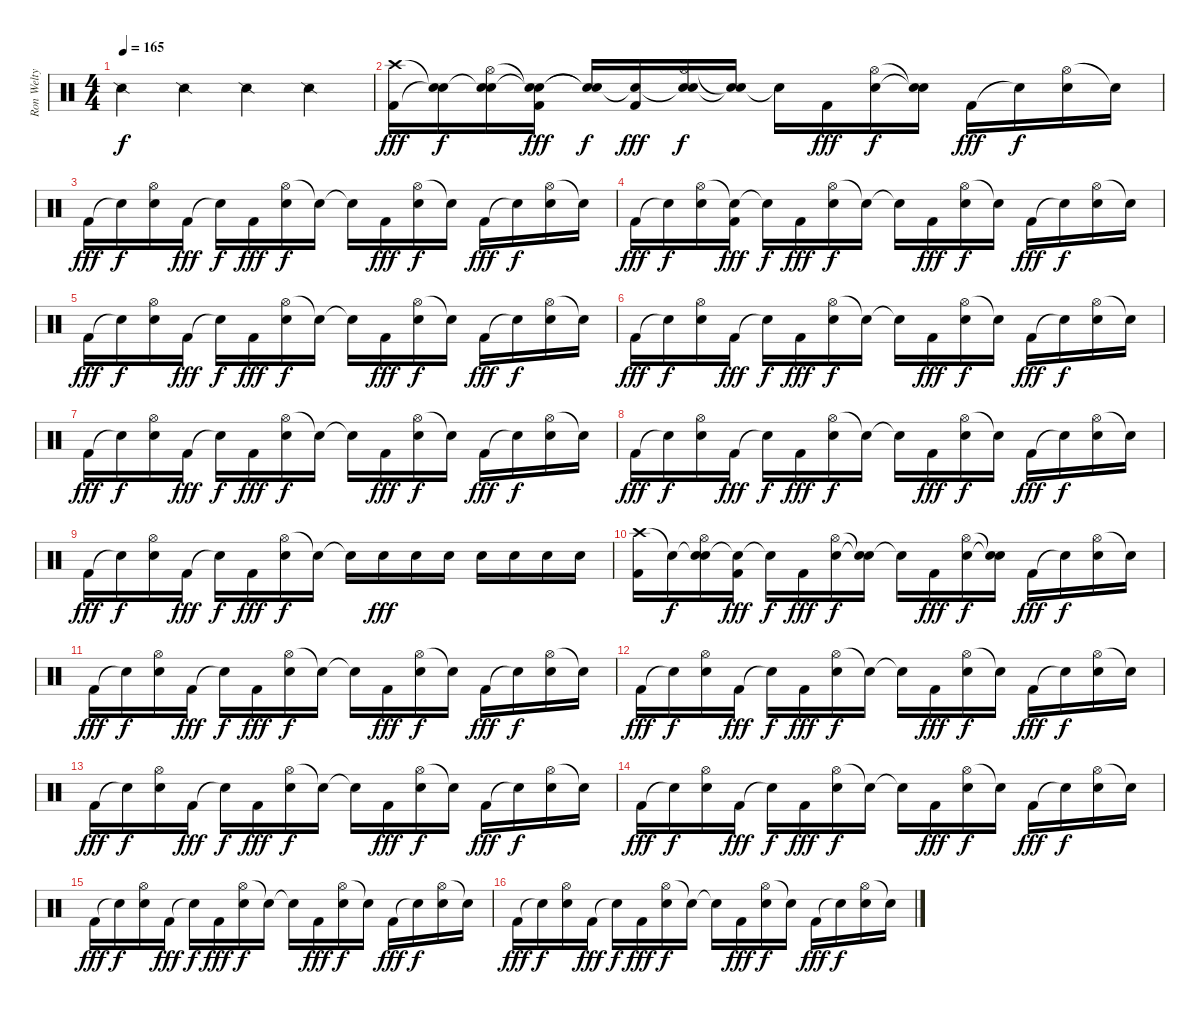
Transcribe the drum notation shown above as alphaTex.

\track ("Ron Welty" "Ron Welty") {instrument percussion}
\staff {score}
\articulation defaults
\ts (4 4)
\tempo 165
\clef neutral
\ks c "Snare (side stick) 2".4{dy f} "Snare (side stick) 2".4 "Snare (side stick) 2".4 "Snare (side stick) 2".4
|
("Crash high (hit)" "Kick (hit) 2").16{dy fff} ("Snare (hit)"{t} "Snare (hit)"{t}).16{dy f} ("Snare (hit)"{t} "Hi-Hat (open)" "Electric Snare (hit)").16 ("Snare (hit)"{t} "Snare (hit)"{t} "Kick (hit) 2").16{dy fff} ("Snare (hit)"{t} "Snare (hit)"{t}).16{dy f} ("Snare (hit)"{t} "Kick (hit) 2").16{dy fff} ("Snare (hit)"{t} "Hi-Hat (open)" "Electric Snare (hit)").16{dy f} ("Snare (hit)"{t} "Snare (hit)"{t}).16 "Snare (hit)"{t}.16 "Kick (hit) 2".16{dy fff} ("Hi-Hat (open)" "Electric Snare (hit)").16{dy f} ("Snare (hit)"{t} "Snare (hit)"{t}).16 "Kick (hit) 2".16{dy fff} "Snare (hit)"{t}.16{dy f} ("Hi-Hat (open)" "Electric Snare (hit)").16 "Snare (hit)"{t}.16 |
"Kick (hit) 2".16{dy fff} "Snare (hit)"{t}.16{dy f} ("Hi-Hat (open)" "Electric Snare (hit)").16 "Kick (hit) 2".16{dy fff} "Snare (hit)"{t}.16{dy f} "Kick (hit) 2".16{dy fff} ("Hi-Hat (open)" "Electric Snare (hit)").16{dy f} "Snare (hit)"{t}.16 "Snare (hit)"{t}.16 "Kick (hit) 2".16{dy fff} ("Hi-Hat (open)" "Electric Snare (hit)").16{dy f} "Snare (hit)"{t}.16 "Kick (hit) 2".16{dy fff} "Snare (hit)"{t}.16{dy f} ("Hi-Hat (open)" "Electric Snare (hit)").16 "Snare (hit)"{t}.16 |
"Kick (hit) 2".16{dy fff} "Snare (hit)"{t}.16{dy f} ("Hi-Hat (open)" "Electric Snare (hit)").16 ("Snare (hit)"{t} "Kick (hit) 2").16{dy fff} "Snare (hit)"{t}.16{dy f} "Kick (hit) 2".16{dy fff} ("Hi-Hat (open)" "Electric Snare (hit)").16{dy f} "Snare (hit)"{t}.16 "Snare (hit)"{t}.16 "Kick (hit) 2".16{dy fff} ("Hi-Hat (open)" "Electric Snare (hit)").16{dy f} "Snare (hit)"{t}.16 "Kick (hit) 2".16{dy fff} "Snare (hit)"{t}.16{dy f} ("Hi-Hat (open)" "Electric Snare (hit)").16 "Snare (hit)"{t}.16 |
"Kick (hit) 2".16{dy fff} "Snare (hit)"{t}.16{dy f} ("Hi-Hat (open)" "Electric Snare (hit)").16 "Kick (hit) 2".16{dy fff} "Snare (hit)"{t}.16{dy f} "Kick (hit) 2".16{dy fff} ("Hi-Hat (open)" "Electric Snare (hit)").16{dy f} "Snare (hit)"{t}.16 "Snare (hit)"{t}.16 "Kick (hit) 2".16{dy fff} ("Hi-Hat (open)" "Electric Snare (hit)").16{dy f} "Snare (hit)"{t}.16 "Kick (hit) 2".16{dy fff} "Snare (hit)"{t}.16{dy f} ("Hi-Hat (open)" "Electric Snare (hit)").16 "Snare (hit)"{t}.16 |
"Kick (hit) 2".16{dy fff} "Snare (hit)"{t}.16{dy f} ("Hi-Hat (open)" "Electric Snare (hit)").16 "Kick (hit) 2".16{dy fff} "Snare (hit)"{t}.16{dy f} "Kick (hit) 2".16{dy fff} ("Hi-Hat (open)" "Electric Snare (hit)").16{dy f} "Snare (hit)"{t}.16 "Snare (hit)"{t}.16 "Kick (hit) 2".16{dy fff} ("Hi-Hat (open)" "Electric Snare (hit)").16{dy f} "Snare (hit)"{t}.16 "Kick (hit) 2".16{dy fff} "Snare (hit)"{t}.16{dy f} ("Hi-Hat (open)" "Electric Snare (hit)").16 "Snare (hit)"{t}.16 |
"Kick (hit) 2".16{dy fff} "Snare (hit)"{t}.16{dy f} ("Hi-Hat (open)" "Electric Snare (hit)").16 "Kick (hit) 2".16{dy fff} "Snare (hit)"{t}.16{dy f} "Kick (hit) 2".16{dy fff} ("Hi-Hat (open)" "Electric Snare (hit)").16{dy f} "Snare (hit)"{t}.16 "Snare (hit)"{t}.16 "Kick (hit) 2".16{dy fff} ("Hi-Hat (open)" "Electric Snare (hit)").16{dy f} "Snare (hit)"{t}.16 "Kick (hit) 2".16{dy fff} "Snare (hit)"{t}.16{dy f} ("Hi-Hat (open)" "Electric Snare (hit)").16 "Snare (hit)"{t}.16 |
"Kick (hit) 2".16{dy fff} "Snare (hit)"{t}.16{dy f} ("Hi-Hat (open)" "Electric Snare (hit)").16 "Kick (hit) 2".16{dy fff} "Snare (hit)"{t}.16{dy f} "Kick (hit) 2".16{dy fff} ("Hi-Hat (open)" "Electric Snare (hit)").16{dy f} "Snare (hit)"{t}.16 "Snare (hit)"{t}.16 "Kick (hit) 2".16{dy fff} ("Hi-Hat (open)" "Electric Snare (hit)").16{dy f} "Snare (hit)"{t}.16 "Kick (hit) 2".16{dy fff} "Snare (hit)"{t}.16{dy f} ("Hi-Hat (open)" "Electric Snare (hit)").16 "Snare (hit)"{t}.16 |
"Kick (hit) 2".16{dy fff} "Snare (hit)"{t}.16{dy f} ("Hi-Hat (open)" "Electric Snare (hit)").16 "Kick (hit) 2".16{dy fff} "Snare (hit)"{t}.16{dy f} "Kick (hit) 2".16{dy fff} ("Hi-Hat (open)" "Electric Snare (hit)").16{dy f} "Snare (hit)"{t}.16 "Snare (hit)"{t}.16 "Snare (hit) 2".16{dy fff} "Snare (hit) 2".16 "Snare (hit) 2".16 "Electric Snare (hit)".16 "Electric Snare (hit)".16 "Snare (hit) 2".16 "Snare (hit) 2".16 |
("Crash high (hit)" "Kick (hit) 2").16 "Snare (hit)"{t}.16{dy f} ("Snare (hit)"{t} "Hi-Hat (open)" "Electric Snare (hit)").16 ("Snare (hit)"{t} "Kick (hit) 2").16{dy fff} "Snare (hit)"{t}.16{dy f} "Kick (hit) 2".16{dy fff} ("Hi-Hat (open)" "Electric Snare (hit)").16{dy f} ("Snare (hit)"{t} "Snare (hit)"{t}).16 "Snare (hit)"{t}.16 "Kick (hit) 2".16{dy fff} ("Hi-Hat (open)" "Electric Snare (hit)").16{dy f} ("Snare (hit)"{t} "Snare (hit)"{t}).16 "Kick (hit) 2".16{dy fff} "Snare (hit)"{t}.16{dy f} ("Hi-Hat (open)" "Electric Snare (hit)").16 "Snare (hit)"{t}.16 |
"Kick (hit) 2".16{dy fff} "Snare (hit)"{t}.16{dy f} ("Hi-Hat (open)" "Electric Snare (hit)").16 "Kick (hit) 2".16{dy fff} "Snare (hit)"{t}.16{dy f} "Kick (hit) 2".16{dy fff} ("Hi-Hat (open)" "Electric Snare (hit)").16{dy f} "Snare (hit)"{t}.16 "Snare (hit)"{t}.16 "Kick (hit) 2".16{dy fff} ("Hi-Hat (open)" "Electric Snare (hit)").16{dy f} "Snare (hit)"{t}.16 "Kick (hit) 2".16{dy fff} "Snare (hit)"{t}.16{dy f} ("Hi-Hat (open)" "Electric Snare (hit)").16 "Snare (hit)"{t}.16 |
"Kick (hit) 2".16{dy fff} "Snare (hit)"{t}.16{dy f} ("Hi-Hat (open)" "Electric Snare (hit)").16 "Kick (hit) 2".16{dy fff} "Snare (hit)"{t}.16{dy f} "Kick (hit) 2".16{dy fff} ("Hi-Hat (open)" "Electric Snare (hit)").16{dy f} "Snare (hit)"{t}.16 "Snare (hit)"{t}.16 "Kick (hit) 2".16{dy fff} ("Hi-Hat (open)" "Electric Snare (hit)").16{dy f} "Snare (hit)"{t}.16 "Kick (hit) 2".16{dy fff} "Snare (hit)"{t}.16{dy f} ("Hi-Hat (open)" "Electric Snare (hit)").16 "Snare (hit)"{t}.16 |
"Kick (hit) 2".16{dy fff} "Snare (hit)"{t}.16{dy f} ("Hi-Hat (open)" "Electric Snare (hit)").16 "Kick (hit) 2".16{dy fff} "Snare (hit)"{t}.16{dy f} "Kick (hit) 2".16{dy fff} ("Hi-Hat (open)" "Electric Snare (hit)").16{dy f} "Snare (hit)"{t}.16 "Snare (hit)"{t}.16 "Kick (hit) 2".16{dy fff} ("Hi-Hat (open)" "Electric Snare (hit)").16{dy f} "Snare (hit)"{t}.16 "Kick (hit) 2".16{dy fff} "Snare (hit)"{t}.16{dy f} ("Hi-Hat (open)" "Electric Snare (hit)").16 "Snare (hit)"{t}.16 |
"Kick (hit) 2".16{dy fff} "Snare (hit)"{t}.16{dy f} ("Hi-Hat (open)" "Electric Snare (hit)").16 "Kick (hit) 2".16{dy fff} "Snare (hit)"{t}.16{dy f} "Kick (hit) 2".16{dy fff} ("Hi-Hat (open)" "Electric Snare (hit)").16{dy f} "Snare (hit)"{t}.16 "Snare (hit)"{t}.16 "Kick (hit) 2".16{dy fff} ("Hi-Hat (open)" "Electric Snare (hit)").16{dy f} "Snare (hit)"{t}.16 "Kick (hit) 2".16{dy fff} "Snare (hit)"{t}.16{dy f} ("Hi-Hat (open)" "Electric Snare (hit)").16 "Snare (hit)"{t}.16 |
"Kick (hit) 2".16{dy fff} "Snare (hit)"{t}.16{dy f} ("Hi-Hat (open)" "Electric Snare (hit)").16 "Kick (hit) 2".16{dy fff} "Snare (hit)"{t}.16{dy f} "Kick (hit) 2".16{dy fff} ("Hi-Hat (open)" "Electric Snare (hit)").16{dy f} "Snare (hit)"{t}.16 "Snare (hit)"{t}.16 "Kick (hit) 2".16{dy fff} ("Hi-Hat (open)" "Electric Snare (hit)").16{dy f} "Snare (hit)"{t}.16 "Kick (hit) 2".16{dy fff} "Snare (hit)"{t}.16{dy f} ("Hi-Hat (open)" "Electric Snare (hit)").16 "Snare (hit)"{t}.16 |
"Kick (hit) 2".16{dy fff} "Snare (hit)"{t}.16{dy f} ("Hi-Hat (open)" "Electric Snare (hit)").16 "Kick (hit) 2".16{dy fff} "Snare (hit)"{t}.16{dy f} "Kick (hit) 2".16{dy fff} ("Hi-Hat (open)" "Electric Snare (hit)").16{dy f} "Snare (hit)"{t}.16 "Snare (hit)"{t}.16 "Kick (hit) 2".16{dy fff} ("Hi-Hat (open)" "Electric Snare (hit)").16{dy f} "Snare (hit)"{t}.16 "Kick (hit) 2".16{dy fff} "Snare (hit)"{t}.16{dy f} ("Hi-Hat (open)" "Electric Snare (hit)").16 "Snare (hit)"{t}.16
